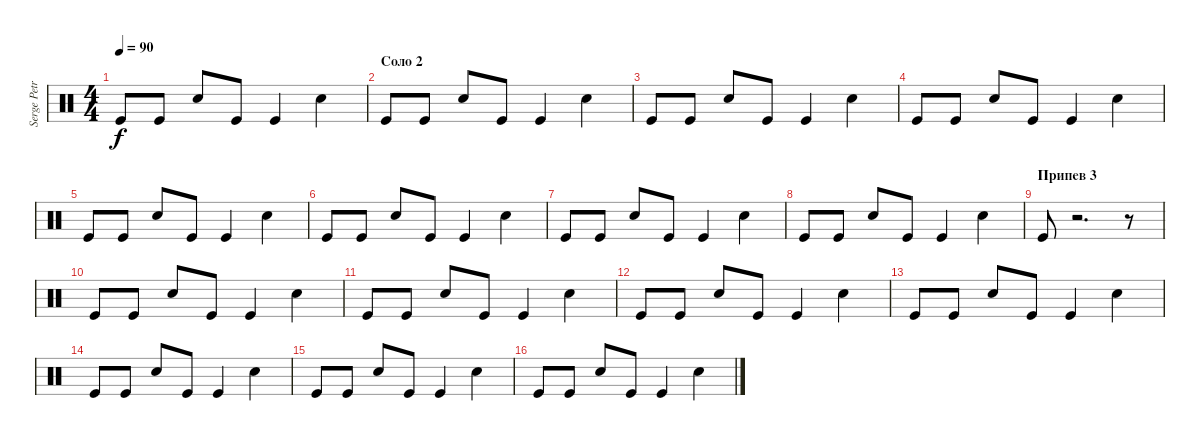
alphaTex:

\track ("Serge Petrone" "Serge Petr") {instrument percussion}
\staff {score}
\articulation defaults
\ts (4 4)
\tempo 90
\clef neutral
\ks c "Kick (hit)".8{dy f} "Kick (hit)".8 "Snare (hit) 2".8 "Kick (hit)".8 "Kick (hit)".4 "Snare (hit) 2".4
|
\section ("" "Соло 2")
"Kick (hit)".8 "Kick (hit)".8 "Snare (hit) 2".8 "Kick (hit)".8 "Kick (hit)".4 "Snare (hit) 2".4 |
"Kick (hit)".8 "Kick (hit)".8 "Snare (hit) 2".8 "Kick (hit)".8 "Kick (hit)".4 "Snare (hit) 2".4 |
"Kick (hit)".8 "Kick (hit)".8 "Snare (hit) 2".8 "Kick (hit)".8 "Kick (hit)".4 "Snare (hit) 2".4 |
"Kick (hit)".8 "Kick (hit)".8 "Snare (hit) 2".8 "Kick (hit)".8 "Kick (hit)".4 "Snare (hit) 2".4 |
"Kick (hit)".8 "Kick (hit)".8 "Snare (hit) 2".8 "Kick (hit)".8 "Kick (hit)".4 "Snare (hit) 2".4 |
"Kick (hit)".8 "Kick (hit)".8 "Snare (hit) 2".8 "Kick (hit)".8 "Kick (hit)".4 "Snare (hit) 2".4 |
"Kick (hit)".8 "Kick (hit)".8 "Snare (hit) 2".8 "Kick (hit)".8 "Kick (hit)".4 "Snare (hit) 2".4 |
\section ("" "Припев 3")
"Kick (hit)".8 r.2{d} r.8 |
"Kick (hit)".8 "Kick (hit)".8 "Snare (hit) 2".8 "Kick (hit)".8 "Kick (hit)".4 "Snare (hit) 2".4 |
"Kick (hit)".8 "Kick (hit)".8 "Snare (hit) 2".8 "Kick (hit)".8 "Kick (hit)".4 "Snare (hit) 2".4 |
"Kick (hit)".8 "Kick (hit)".8 "Snare (hit) 2".8 "Kick (hit)".8 "Kick (hit)".4 "Snare (hit) 2".4 |
"Kick (hit)".8 "Kick (hit)".8 "Snare (hit) 2".8 "Kick (hit)".8 "Kick (hit)".4 "Snare (hit) 2".4 |
"Kick (hit)".8 "Kick (hit)".8 "Snare (hit) 2".8 "Kick (hit)".8 "Kick (hit)".4 "Snare (hit) 2".4 |
"Kick (hit)".8 "Kick (hit)".8 "Snare (hit) 2".8 "Kick (hit)".8 "Kick (hit)".4 "Snare (hit) 2".4 |
"Kick (hit)".8 "Kick (hit)".8 "Snare (hit) 2".8 "Kick (hit)".8 "Kick (hit)".4 "Snare (hit) 2".4
